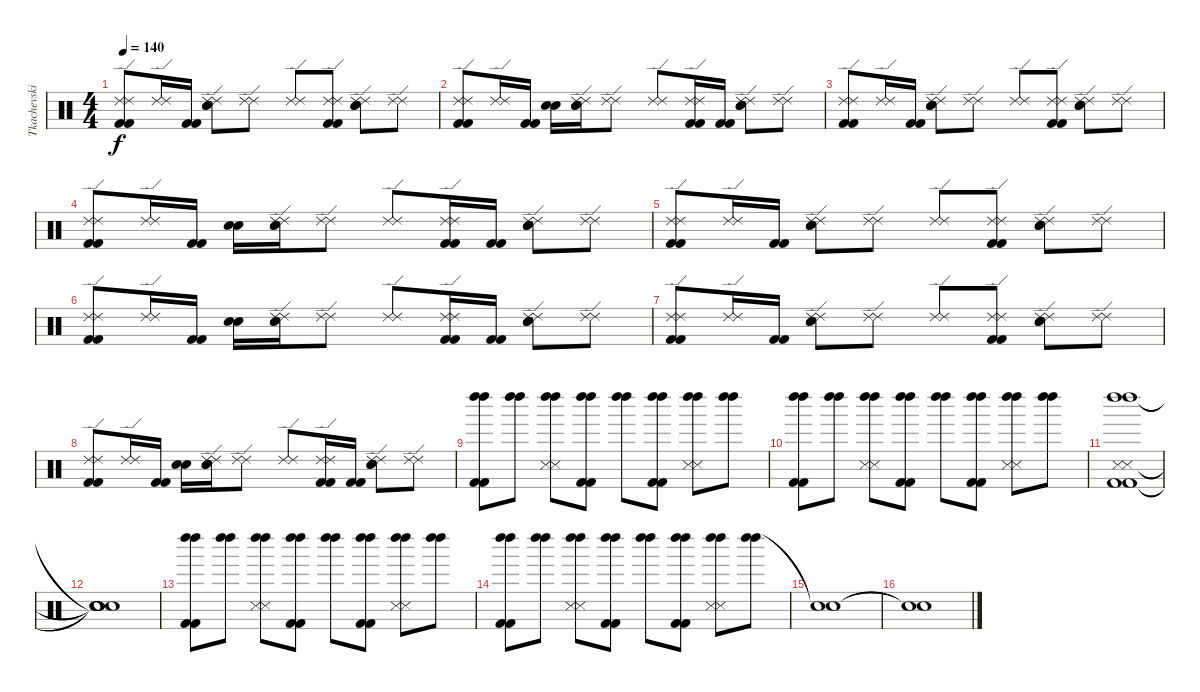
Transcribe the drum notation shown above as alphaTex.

\track ("Tkachevskiy A" "Tkachevski") {instrument percussion}
\staff {score}
\articulation defaults
\ts (4 4)
\tempo 140
\clef neutral
\ks c
("Kick (hit) 2" "Ride (edge) 2" "Kick (hit) 2" "Ride (edge) 2").8{dy f} ("Ride (edge) 2" "Ride (edge) 2").16 ("Kick (hit) 2" "Kick (hit) 2").16 ("Snare (hit) 2" "Ride (edge) 2" "Snare (hit) 2" "Ride (edge) 2").8 ("Ride (edge) 2" "Ride (edge) 2").8 ("Ride (edge) 2" "Ride (edge) 2").8 ("Kick (hit) 2" "Ride (edge) 2" "Kick (hit) 2" "Ride (edge) 2").8 ("Snare (hit) 2" "Ride (edge) 2" "Snare (hit) 2" "Ride (edge) 2").8 ("Ride (edge) 2" "Ride (edge) 2").8 |
("Kick (hit) 2" "Ride (edge) 2" "Kick (hit) 2" "Ride (edge) 2").8 ("Ride (edge) 2" "Ride (edge) 2").16 ("Kick (hit) 2" "Kick (hit) 2").16 ("Snare (hit) 2" "Snare (hit) 2").16 ("Snare (hit) 2" "Ride (edge) 2" "Snare (hit) 2" "Ride (edge) 2").16 ("Ride (edge) 2" "Ride (edge) 2").8 ("Ride (edge) 2" "Ride (edge) 2").8 ("Kick (hit) 2" "Ride (edge) 2" "Kick (hit) 2" "Ride (edge) 2").16 ("Kick (hit) 2" "Kick (hit) 2").16 ("Snare (hit) 2" "Ride (edge) 2" "Snare (hit) 2" "Ride (edge) 2").8 ("Ride (edge) 2" "Ride (edge) 2").8 |
("Kick (hit) 2" "Ride (edge) 2" "Kick (hit) 2" "Ride (edge) 2").8 ("Ride (edge) 2" "Ride (edge) 2").16 ("Kick (hit) 2" "Kick (hit) 2").16 ("Snare (hit) 2" "Ride (edge) 2" "Snare (hit) 2" "Ride (edge) 2").8 ("Ride (edge) 2" "Ride (edge) 2").8 ("Ride (edge) 2" "Ride (edge) 2").8 ("Kick (hit) 2" "Ride (edge) 2" "Kick (hit) 2" "Ride (edge) 2").8 ("Snare (hit) 2" "Ride (edge) 2" "Snare (hit) 2" "Ride (edge) 2").8 ("Ride (edge) 2" "Ride (edge) 2").8 |
("Kick (hit) 2" "Ride (edge) 2" "Kick (hit) 2" "Ride (edge) 2").8 ("Ride (edge) 2" "Ride (edge) 2").16 ("Kick (hit) 2" "Kick (hit) 2").16 ("Snare (hit) 2" "Snare (hit) 2").16 ("Snare (hit) 2" "Ride (edge) 2" "Snare (hit) 2" "Ride (edge) 2").16 ("Ride (edge) 2" "Ride (edge) 2").8 ("Ride (edge) 2" "Ride (edge) 2").8 ("Kick (hit) 2" "Ride (edge) 2" "Kick (hit) 2" "Ride (edge) 2").16 ("Kick (hit) 2" "Kick (hit) 2").16 ("Snare (hit) 2" "Ride (edge) 2" "Snare (hit) 2" "Ride (edge) 2").8 ("Ride (edge) 2" "Ride (edge) 2").8 |
("Kick (hit) 2" "Ride (edge) 2" "Kick (hit) 2" "Ride (edge) 2").8 ("Ride (edge) 2" "Ride (edge) 2").16 ("Kick (hit) 2" "Kick (hit) 2").16 ("Snare (hit) 2" "Ride (edge) 2" "Snare (hit) 2" "Ride (edge) 2").8 ("Ride (edge) 2" "Ride (edge) 2").8 ("Ride (edge) 2" "Ride (edge) 2").8 ("Kick (hit) 2" "Ride (edge) 2" "Kick (hit) 2" "Ride (edge) 2").8 ("Snare (hit) 2" "Ride (edge) 2" "Snare (hit) 2" "Ride (edge) 2").8 ("Ride (edge) 2" "Ride (edge) 2").8 |
("Kick (hit) 2" "Ride (edge) 2" "Kick (hit) 2" "Ride (edge) 2").8 ("Ride (edge) 2" "Ride (edge) 2").16 ("Kick (hit) 2" "Kick (hit) 2").16 ("Snare (hit) 2" "Snare (hit) 2").16 ("Snare (hit) 2" "Ride (edge) 2" "Snare (hit) 2" "Ride (edge) 2").16 ("Ride (edge) 2" "Ride (edge) 2").8 ("Ride (edge) 2" "Ride (edge) 2").8 ("Kick (hit) 2" "Ride (edge) 2" "Kick (hit) 2" "Ride (edge) 2").16 ("Kick (hit) 2" "Kick (hit) 2").16 ("Snare (hit) 2" "Ride (edge) 2" "Snare (hit) 2" "Ride (edge) 2").8 ("Ride (edge) 2" "Ride (edge) 2").8 |
("Kick (hit) 2" "Ride (edge) 2" "Kick (hit) 2" "Ride (edge) 2").8 ("Ride (edge) 2" "Ride (edge) 2").16 ("Kick (hit) 2" "Kick (hit) 2").16 ("Snare (hit) 2" "Ride (edge) 2" "Snare (hit) 2" "Ride (edge) 2").8 ("Ride (edge) 2" "Ride (edge) 2").8 ("Ride (edge) 2" "Ride (edge) 2").8 ("Kick (hit) 2" "Ride (edge) 2" "Kick (hit) 2" "Ride (edge) 2").8 ("Snare (hit) 2" "Ride (edge) 2" "Snare (hit) 2" "Ride (edge) 2").8 ("Ride (edge) 2" "Ride (edge) 2").8 |
("Kick (hit) 2" "Ride (edge) 2" "Kick (hit) 2" "Ride (edge) 2").8 ("Ride (edge) 2" "Ride (edge) 2").16 ("Kick (hit) 2" "Kick (hit) 2").16 ("Snare (hit) 2" "Snare (hit) 2").16 ("Snare (hit) 2" "Ride (edge) 2" "Snare (hit) 2" "Ride (edge) 2").16 ("Ride (edge) 2" "Ride (edge) 2").8 ("Ride (edge) 2" "Ride (edge) 2").8 ("Kick (hit) 2" "Ride (edge) 2" "Kick (hit) 2" "Ride (edge) 2").16 ("Kick (hit) 2" "Kick (hit) 2").16 ("Snare (hit) 2" "Ride (edge) 2" "Snare (hit) 2" "Ride (edge) 2").8 ("Ride (edge) 2" "Ride (edge) 2").8 |
("Kick (hit) 2" "Left Maraca (hit)" "Kick (hit) 2" "Left Maraca (hit)").8 ("Left Maraca (hit)" "Left Maraca (hit)").8 ("Snare (side stick) 3" "Left Maraca (hit)" "Snare (side stick) 3" "Left Maraca (hit)").8 ("Kick (hit) 2" "Left Maraca (hit)" "Kick (hit) 2" "Left Maraca (hit)").8 ("Left Maraca (hit)" "Left Maraca (hit)").8 ("Kick (hit) 2" "Left Maraca (hit)" "Kick (hit) 2" "Left Maraca (hit)").8 ("Snare (side stick) 3" "Left Maraca (hit)" "Snare (side stick) 3" "Left Maraca (hit)").8 ("Left Maraca (hit)" "Left Maraca (hit)").8 |
("Kick (hit) 2" "Left Maraca (hit)" "Kick (hit) 2" "Left Maraca (hit)").8 ("Left Maraca (hit)" "Left Maraca (hit)").8 ("Snare (side stick) 3" "Left Maraca (hit)" "Snare (side stick) 3" "Left Maraca (hit)").8 ("Kick (hit) 2" "Left Maraca (hit)" "Kick (hit) 2" "Left Maraca (hit)").8 ("Left Maraca (hit)" "Left Maraca (hit)").8 ("Kick (hit) 2" "Left Maraca (hit)" "Kick (hit) 2" "Left Maraca (hit)").8 ("Snare (side stick) 3" "Left Maraca (hit)" "Snare (side stick) 3" "Left Maraca (hit)").8 ("Left Maraca (hit)" "Left Maraca (hit)").8 |
("Kick (hit) 2" "Snare (side stick) 3" "Left Maraca (hit)" "Kick (hit) 2" "Snare (side stick) 3" "Left Maraca (hit)").1 |
("Snare (hit)"{t} "Snare (hit)"{t} "Snare (hit)"{t} "Snare (hit)"{t} "Snare (hit)"{t} "Snare (hit)"{t}).1 |
("Kick (hit) 2" "Left Maraca (hit)" "Kick (hit) 2" "Left Maraca (hit)").8 ("Left Maraca (hit)" "Left Maraca (hit)").8 ("Snare (side stick) 3" "Left Maraca (hit)" "Snare (side stick) 3" "Left Maraca (hit)").8 ("Kick (hit) 2" "Left Maraca (hit)" "Kick (hit) 2" "Left Maraca (hit)").8 ("Left Maraca (hit)" "Left Maraca (hit)").8 ("Kick (hit) 2" "Left Maraca (hit)" "Kick (hit) 2" "Left Maraca (hit)").8 ("Snare (side stick) 3" "Left Maraca (hit)" "Snare (side stick) 3" "Left Maraca (hit)").8 ("Left Maraca (hit)" "Left Maraca (hit)").8 |
("Kick (hit) 2" "Left Maraca (hit)" "Kick (hit) 2" "Left Maraca (hit)").8 ("Left Maraca (hit)" "Left Maraca (hit)").8 ("Snare (side stick) 3" "Left Maraca (hit)" "Snare (side stick) 3" "Left Maraca (hit)").8 ("Kick (hit) 2" "Left Maraca (hit)" "Kick (hit) 2" "Left Maraca (hit)").8 ("Left Maraca (hit)" "Left Maraca (hit)").8 ("Kick (hit) 2" "Left Maraca (hit)" "Kick (hit) 2" "Left Maraca (hit)").8 ("Snare (side stick) 3" "Left Maraca (hit)" "Snare (side stick) 3" "Left Maraca (hit)").8 ("Left Maraca (hit)" "Left Maraca (hit)").8 |
("Snare (hit)"{t} "Snare (hit)"{t}).1 |
("Snare (hit)"{t} "Snare (hit)"{t}).1
